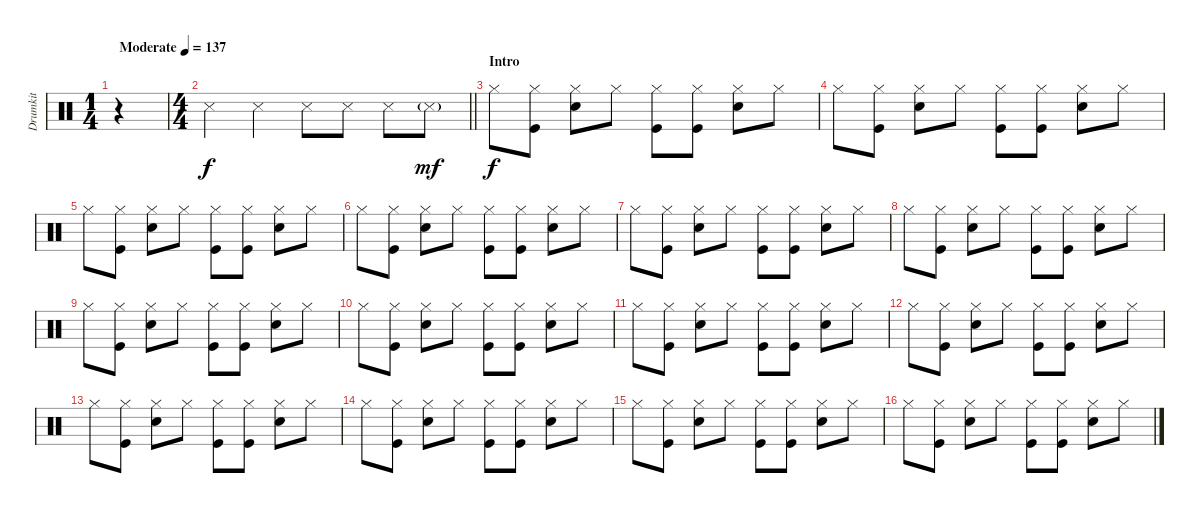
\track ("Drumkit" "Drumkit") {instrument percussion}
\staff {score}
\articulation defaults
\voice
\ts (1 4)
\tempo (137 "Moderate")
\clef neutral
\ks c
r.4{dy f} |
\ts (4 4)
\barLineRight lightlight "Snare (side stick) 3".4 "Snare (side stick) 3".4 "Snare (side stick) 3".8 "Snare (side stick) 3".8 "Snare (side stick) 3".8 "Snare (side stick) 3"{g}.8{dy mf}
|
\section ("" "Intro")
"Hi-Hat (closed)".8{dy f} ("Hi-Hat (closed)" "Kick (hit)").8 ("Hi-Hat (closed)" "Snare (hit) 2").8 "Hi-Hat (closed)".8 ("Hi-Hat (closed)" "Kick (hit)").8 ("Hi-Hat (closed)" "Kick (hit)").8 ("Hi-Hat (closed)" "Snare (hit) 2").8 "Hi-Hat (closed)".8 |
"Hi-Hat (closed)".8 ("Hi-Hat (closed)" "Kick (hit)").8 ("Hi-Hat (closed)" "Snare (hit) 2").8 "Hi-Hat (closed)".8 ("Hi-Hat (closed)" "Kick (hit)").8 ("Hi-Hat (closed)" "Kick (hit)").8 ("Hi-Hat (closed)" "Snare (hit) 2").8 "Hi-Hat (closed)".8 |
"Hi-Hat (closed)".8 ("Hi-Hat (closed)" "Kick (hit)").8 ("Hi-Hat (closed)" "Snare (hit) 2").8 "Hi-Hat (closed)".8 ("Hi-Hat (closed)" "Kick (hit)").8 ("Hi-Hat (closed)" "Kick (hit)").8 ("Hi-Hat (closed)" "Snare (hit) 2").8 "Hi-Hat (closed)".8 |
"Hi-Hat (closed)".8 ("Hi-Hat (closed)" "Kick (hit)").8 ("Hi-Hat (closed)" "Snare (hit) 2").8 "Hi-Hat (closed)".8 ("Hi-Hat (closed)" "Kick (hit)").8 ("Hi-Hat (closed)" "Kick (hit)").8 ("Hi-Hat (closed)" "Snare (hit) 2").8 "Hi-Hat (closed)".8 |
"Hi-Hat (closed)".8 ("Hi-Hat (closed)" "Kick (hit)").8 ("Hi-Hat (closed)" "Snare (hit) 2").8 "Hi-Hat (closed)".8 ("Hi-Hat (closed)" "Kick (hit)").8 ("Hi-Hat (closed)" "Kick (hit)").8 ("Hi-Hat (closed)" "Snare (hit) 2").8 "Hi-Hat (closed)".8 |
"Hi-Hat (closed)".8 ("Hi-Hat (closed)" "Kick (hit)").8 ("Hi-Hat (closed)" "Snare (hit) 2").8 "Hi-Hat (closed)".8 ("Hi-Hat (closed)" "Kick (hit)").8 ("Hi-Hat (closed)" "Kick (hit)").8 ("Hi-Hat (closed)" "Snare (hit) 2").8 "Hi-Hat (closed)".8 |
"Hi-Hat (closed)".8 ("Hi-Hat (closed)" "Kick (hit)").8 ("Hi-Hat (closed)" "Snare (hit) 2").8 "Hi-Hat (closed)".8 ("Hi-Hat (closed)" "Kick (hit)").8 ("Hi-Hat (closed)" "Kick (hit)").8 ("Hi-Hat (closed)" "Snare (hit) 2").8 "Hi-Hat (closed)".8 |
"Hi-Hat (closed)".8 ("Hi-Hat (closed)" "Kick (hit)").8 ("Hi-Hat (closed)" "Snare (hit) 2").8 "Hi-Hat (closed)".8 ("Hi-Hat (closed)" "Kick (hit)").8 ("Hi-Hat (closed)" "Kick (hit)").8 ("Hi-Hat (closed)" "Snare (hit) 2").8 "Hi-Hat (closed)".8 |
"Hi-Hat (closed)".8 ("Hi-Hat (closed)" "Kick (hit)").8 ("Hi-Hat (closed)" "Snare (hit) 2").8 "Hi-Hat (closed)".8 ("Hi-Hat (closed)" "Kick (hit)").8 ("Hi-Hat (closed)" "Kick (hit)").8 ("Hi-Hat (closed)" "Snare (hit) 2").8 "Hi-Hat (closed)".8 |
"Hi-Hat (closed)".8 ("Hi-Hat (closed)" "Kick (hit)").8 ("Hi-Hat (closed)" "Snare (hit) 2").8 "Hi-Hat (closed)".8 ("Hi-Hat (closed)" "Kick (hit)").8 ("Hi-Hat (closed)" "Kick (hit)").8 ("Hi-Hat (closed)" "Snare (hit) 2").8 "Hi-Hat (closed)".8 |
"Hi-Hat (closed)".8 ("Hi-Hat (closed)" "Kick (hit)").8 ("Hi-Hat (closed)" "Snare (hit) 2").8 "Hi-Hat (closed)".8 ("Hi-Hat (closed)" "Kick (hit)").8 ("Hi-Hat (closed)" "Kick (hit)").8 ("Hi-Hat (closed)" "Snare (hit) 2").8 "Hi-Hat (closed)".8 |
"Hi-Hat (closed)".8 ("Hi-Hat (closed)" "Kick (hit)").8 ("Hi-Hat (closed)" "Snare (hit) 2").8 "Hi-Hat (closed)".8 ("Hi-Hat (closed)" "Kick (hit)").8 ("Hi-Hat (closed)" "Kick (hit)").8 ("Hi-Hat (closed)" "Snare (hit) 2").8 "Hi-Hat (closed)".8 |
"Hi-Hat (closed)".8 ("Hi-Hat (closed)" "Kick (hit)").8 ("Hi-Hat (closed)" "Snare (hit) 2").8 "Hi-Hat (closed)".8 ("Hi-Hat (closed)" "Kick (hit)").8 ("Hi-Hat (closed)" "Kick (hit)").8 ("Hi-Hat (closed)" "Snare (hit) 2").8 "Hi-Hat (closed)".8 |
"Hi-Hat (closed)".8 ("Hi-Hat (closed)" "Kick (hit)").8 ("Hi-Hat (closed)" "Snare (hit) 2").8 "Hi-Hat (closed)".8 ("Hi-Hat (closed)" "Kick (hit)").8 ("Hi-Hat (closed)" "Kick (hit)").8 ("Hi-Hat (closed)" "Snare (hit) 2").8 "Hi-Hat (closed)".8
\voice
\clef neutral
\ottava regular
\simile none
\ks c
r.4{dy f} |
\barLineRight lightlight
|
|
|
|
|
|
|
|
|
|
|
|
|
|
